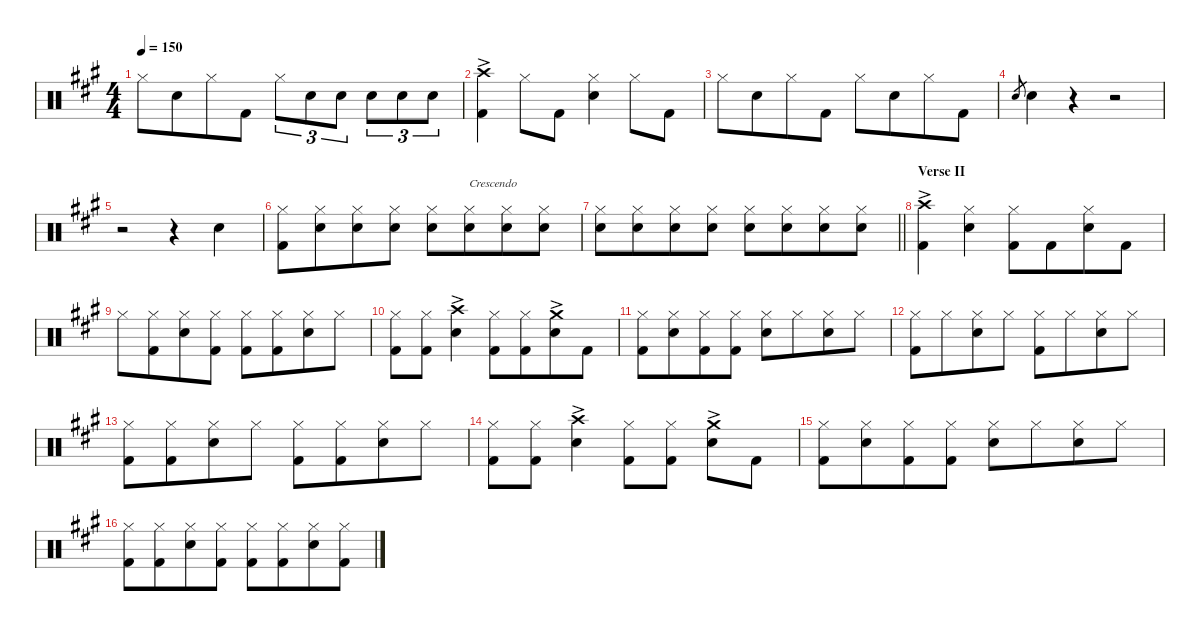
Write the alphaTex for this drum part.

\defaultSystemsLayout 4
\hideDynamics
\bracketExtendMode nobrackets
\singleTrackTrackNamePolicy hidden
\multiTrackTrackNamePolicy hidden
\firstSystemTrackNameMode fullname
\firstSystemTrackNameOrientation horizontal
\otherSystemsTrackNameOrientation horizontal
\track ("Drums" "drm.") {instrument percussion}
\staff {score}
\articulation defaults
\ts (4 4)
\tempo 150
\clef neutral
\ks a "Hi-Hat (closed)"{acc forcenatural}.8{dy f beam Down} "Snare (hit) 2"{acc forcenatural}.8{beam Down beam merge} "Hi-Hat (closed)"{acc forcenatural}.8{beam Down} "Kick (hit) 2"{acc forcenatural}.8{beam Down} "Hi-Hat (closed)"{acc forcenatural}.8{tu (3 2) beam Down} "Snare (hit) 2"{acc forcenatural}.8{tu (3 2) beam Down} "Snare (hit) 2"{acc forcenatural}.8{tu (3 2) beam Down} "Snare (hit) 2"{acc forcenatural}.8{tu (3 2) beam Down} "Snare (hit) 2"{acc forcenatural}.8{tu (3 2) beam Down} "Snare (hit) 2"{acc forcenatural}.8{tu (3 2) beam Down}
|
("Crash high (hit)"{ac acc forcenatural} "Kick (hit) 2"{acc forcenatural}).4{beam Down} "Hi-Hat (closed)"{acc forcenatural}.8{beam Down} "Kick (hit) 2"{acc forcenatural}.8{beam Down} ("Hi-Hat (closed)"{acc forcenatural} "Snare (hit) 2"{acc forcenatural}).4{beam Down} "Hi-Hat (closed)"{acc forcenatural}.8{beam Down} "Kick (hit) 2"{acc forcenatural}.8{beam Down} |
"Hi-Hat (closed)"{acc forcenatural}.8{beam Down} "Snare (hit) 2"{acc forcenatural}.8{beam Down beam merge} "Hi-Hat (closed)"{acc forcenatural}.8{beam Down} "Kick (hit) 2"{acc forcenatural}.8{beam Down} "Hi-Hat (closed)"{acc forcenatural}.8{beam Down} "Snare (hit) 2"{acc forcenatural}.8{beam Down beam merge} "Hi-Hat (closed)"{acc forcenatural}.8{beam Down} "Kick (hit) 2"{acc forcenatural}.8{beam Down} |
"Snare (hit) 2"{acc forcenatural}.8{gr dy mf beam Up} "Snare (hit) 2"{acc forcenatural}.4{dy f beam Down} r.4{beam Down} r.2{beam Down} |
r.2{beam Down} r.4{beam Down} "Snare (hit) 2"{acc forcenatural}.4{beam Down} |
("Hi-Hat (closed)"{acc forcenatural} "Kick (hit) 2"{acc forcenatural}).8{beam Down} ("Hi-Hat (closed)"{acc forcenatural} "Snare (hit) 2"{acc forcenatural}).8{beam Down beam merge} ("Hi-Hat (closed)"{acc forcenatural} "Snare (hit) 2"{acc forcenatural}).8{beam Down} ("Hi-Hat (closed)"{acc forcenatural} "Snare (hit) 2"{acc forcenatural}).8{beam Down} ("Hi-Hat (closed)"{acc forcenatural} "Snare (hit) 2"{acc forcenatural}).8{beam Down} ("Hi-Hat (closed)"{acc forcenatural} "Snare (hit) 2"{acc forcenatural}).8{txt "Crescendo" beam Down beam merge} ("Hi-Hat (closed)"{acc forcenatural} "Snare (hit) 2"{acc forcenatural}).8{beam Down} ("Hi-Hat (closed)"{acc forcenatural} "Snare (hit) 2"{acc forcenatural}).8{beam Down} |
\barLineRight lightlight
("Hi-Hat (closed)"{acc forcenatural} "Snare (hit) 2"{acc forcenatural}).8{beam Down} ("Hi-Hat (closed)"{acc forcenatural} "Snare (hit) 2"{acc forcenatural}).8{beam Down beam merge} ("Hi-Hat (closed)"{acc forcenatural} "Snare (hit) 2"{acc forcenatural}).8{beam Down} ("Hi-Hat (closed)"{acc forcenatural} "Snare (hit) 2"{acc forcenatural}).8{beam Down} ("Hi-Hat (closed)"{acc forcenatural} "Snare (hit) 2"{acc forcenatural}).8{beam Down} ("Hi-Hat (closed)"{acc forcenatural} "Snare (hit) 2"{acc forcenatural}).8{beam Down beam merge} ("Hi-Hat (closed)"{acc forcenatural} "Snare (hit) 2"{acc forcenatural}).8{beam Down} ("Hi-Hat (closed)"{acc forcenatural} "Snare (hit) 2"{acc forcenatural}).8{beam Down} |
\section ("" "Verse II")
("Crash high (hit)"{ac acc forcenatural} "Kick (hit) 2"{acc forcenatural}).4{beam Down} ("Hi-Hat (closed)"{acc forcenatural} "Snare (hit) 2"{acc forcenatural}).4{beam Down} ("Hi-Hat (closed)"{acc forcenatural} "Kick (hit) 2"{acc forcenatural}).8{beam Down} "Kick (hit) 2"{acc forcenatural}.8{beam Down beam merge} ("Hi-Hat (closed)"{acc forcenatural} "Snare (hit) 2"{acc forcenatural}).8{beam Down} "Kick (hit) 2"{acc forcenatural}.8{beam Down} |
"Hi-Hat (closed)"{acc forcenatural}.8{beam Down} ("Hi-Hat (closed)"{acc forcenatural} "Kick (hit) 2"{acc forcenatural}).8{beam Down beam merge} ("Hi-Hat (closed)"{acc forcenatural} "Snare (hit) 2"{acc forcenatural}).8{beam Down} ("Hi-Hat (closed)"{acc forcenatural} "Kick (hit) 2"{acc forcenatural}).8{beam Down} ("Hi-Hat (closed)"{acc forcenatural} "Kick (hit) 2"{acc forcenatural}).8{beam Down} ("Hi-Hat (closed)"{acc forcenatural} "Kick (hit) 2"{acc forcenatural}).8{beam Down beam merge} ("Hi-Hat (closed)"{acc forcenatural} "Snare (hit) 2"{acc forcenatural}).8{beam Down} "Hi-Hat (closed)"{acc forcenatural}.8{beam Down} |
("Hi-Hat (closed)"{acc forcenatural} "Kick (hit) 2"{acc forcenatural}).8{beam Down} ("Hi-Hat (closed)"{acc forcenatural} "Kick (hit) 2"{acc forcenatural}).8{beam Down} ("Crash high (hit)"{ac acc forcenatural} "Snare (hit) 2"{acc forcenatural}).4{beam Down} ("Hi-Hat (closed)"{acc forcenatural} "Kick (hit) 2"{acc forcenatural}).8{beam Down} ("Hi-Hat (closed)"{acc forcenatural} "Kick (hit) 2"{acc forcenatural}).8{beam Down beam merge} ("Crash medium (hit)"{ac acc forcenatural} "Snare (hit) 2"{acc forcenatural}).8{beam Down} "Kick (hit) 2"{acc forcenatural}.8{beam Down} |
("Hi-Hat (closed)"{acc forcenatural} "Kick (hit) 2"{acc forcenatural}).8{beam Down} ("Hi-Hat (closed)"{acc forcenatural} "Snare (hit) 2"{acc forcenatural}).8{beam Down beam merge} ("Hi-Hat (closed)"{acc forcenatural} "Kick (hit) 2"{acc forcenatural}).8{beam Down} ("Hi-Hat (closed)"{acc forcenatural} "Kick (hit) 2"{acc forcenatural}).8{beam Down} ("Hi-Hat (closed)"{acc forcenatural} "Snare (hit) 2"{acc forcenatural}).8{beam Down} "Hi-Hat (closed)"{acc forcenatural}.8{beam Down beam merge} ("Hi-Hat (closed)"{acc forcenatural} "Snare (hit) 2"{acc forcenatural}).8{beam Down} "Hi-Hat (closed)"{acc forcenatural}.8{beam Down} |
("Hi-Hat (closed)"{acc forcenatural} "Kick (hit) 2"{acc forcenatural}).8{beam Down} "Hi-Hat (closed)"{acc forcenatural}.8{beam Down beam merge} ("Hi-Hat (closed)"{acc forcenatural} "Snare (hit) 2"{acc forcenatural}).8{beam Down} "Hi-Hat (closed)"{acc forcenatural}.8{beam Down} ("Hi-Hat (closed)"{acc forcenatural} "Kick (hit) 2"{acc forcenatural}).8{beam Down} "Hi-Hat (closed)"{acc forcenatural}.8{beam Down beam merge} ("Hi-Hat (closed)"{acc forcenatural} "Snare (hit) 2"{acc forcenatural}).8{beam Down} "Hi-Hat (closed)"{acc forcenatural}.8{beam Down} |
("Hi-Hat (closed)"{acc forcenatural} "Kick (hit) 2"{acc forcenatural}).8{beam Down} ("Hi-Hat (closed)"{acc forcenatural} "Kick (hit) 2"{acc forcenatural}).8{beam Down beam merge} ("Hi-Hat (closed)"{acc forcenatural} "Snare (hit) 2"{acc forcenatural}).8{beam Down} "Hi-Hat (closed)"{acc forcenatural}.8{beam Down} ("Hi-Hat (closed)"{acc forcenatural} "Kick (hit) 2"{acc forcenatural}).8{beam Down} ("Hi-Hat (closed)"{acc forcenatural} "Kick (hit) 2"{acc forcenatural}).8{beam Down beam merge} ("Hi-Hat (closed)"{acc forcenatural} "Snare (hit) 2"{acc forcenatural}).8{beam Down} "Hi-Hat (closed)"{acc forcenatural}.8{beam Down} |
("Hi-Hat (closed)"{acc forcenatural} "Kick (hit) 2"{acc forcenatural}).8{beam Down} ("Hi-Hat (closed)"{acc forcenatural} "Kick (hit) 2"{acc forcenatural}).8{beam Down} ("Crash high (hit)"{ac acc forcenatural} "Snare (hit) 2"{acc forcenatural}).4{beam Down} ("Hi-Hat (closed)"{acc forcenatural} "Kick (hit) 2"{acc forcenatural}).8{beam Down} ("Hi-Hat (closed)"{acc forcenatural} "Kick (hit) 2"{acc forcenatural}).8{beam Down} ("Crash medium (hit)"{ac acc forcenatural} "Snare (hit) 2"{acc forcenatural}).8{beam Down} "Kick (hit) 2"{acc forcenatural}.8{beam Down} |
("Hi-Hat (closed)"{acc forcenatural} "Kick (hit) 2"{acc forcenatural}).8{beam Down} ("Hi-Hat (closed)"{acc forcenatural} "Snare (hit) 2"{acc forcenatural}).8{beam Down beam merge} ("Hi-Hat (closed)"{acc forcenatural} "Kick (hit) 2"{acc forcenatural}).8{beam Down} ("Hi-Hat (closed)"{acc forcenatural} "Kick (hit) 2"{acc forcenatural}).8{beam Down} ("Hi-Hat (closed)"{acc forcenatural} "Snare (hit) 2"{acc forcenatural}).8{beam Down} "Hi-Hat (closed)"{acc forcenatural}.8{beam Down beam merge} ("Hi-Hat (closed)"{acc forcenatural} "Snare (hit) 2"{acc forcenatural}).8{beam Down} "Hi-Hat (closed)"{acc forcenatural}.8{beam Down} |
("Hi-Hat (closed)"{acc forcenatural} "Kick (hit) 2"{acc forcenatural}).8{beam Down} ("Hi-Hat (closed)"{acc forcenatural} "Kick (hit) 2"{acc forcenatural}).8{beam Down beam merge} ("Hi-Hat (closed)"{acc forcenatural} "Snare (hit) 2"{acc forcenatural}).8{beam Down} ("Hi-Hat (closed)"{acc forcenatural} "Kick (hit) 2"{acc forcenatural}).8{beam Down} ("Hi-Hat (closed)"{acc forcenatural} "Kick (hit) 2"{acc forcenatural}).8{beam Down} ("Hi-Hat (closed)"{acc forcenatural} "Kick (hit) 2"{acc forcenatural}).8{beam Down beam merge} ("Hi-Hat (closed)"{acc forcenatural} "Snare (hit) 2"{acc forcenatural}).8{beam Down} ("Hi-Hat (closed)"{acc forcenatural} "Kick (hit) 2"{acc forcenatural}).8{beam Down}
